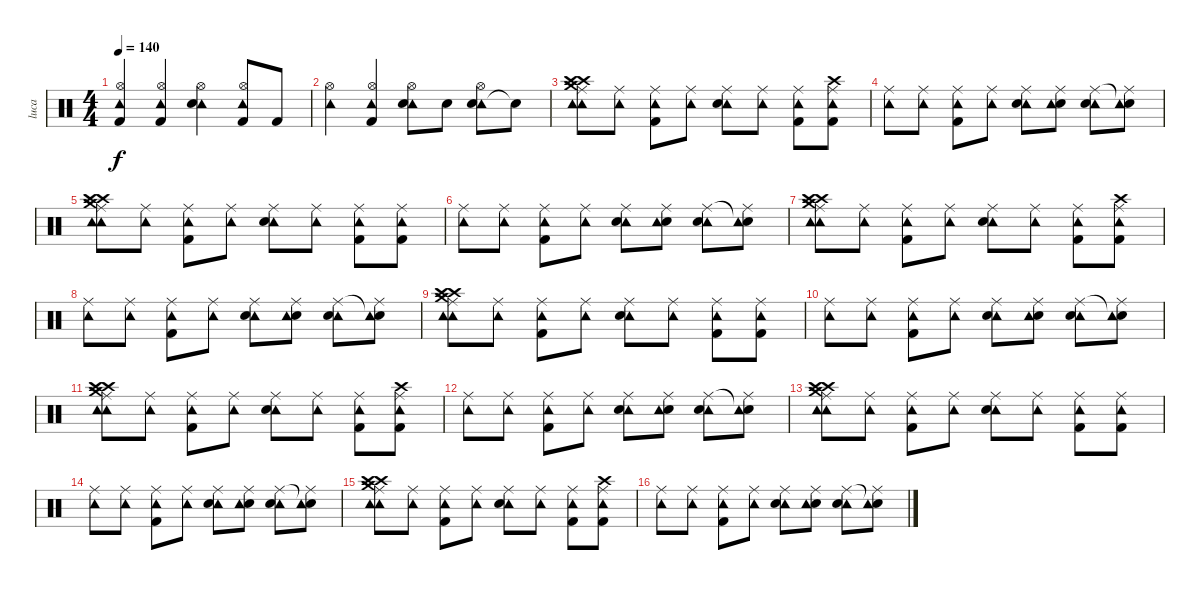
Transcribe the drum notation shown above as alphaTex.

\track ("luca" "luca") {instrument percussion}
\staff {score}
\articulation defaults
\ts (4 4)
\tempo 140
\clef neutral
\ks c
("Kick (hit) 2" "Hi-Hat (open)" "Tambourine (hit)").4{dy f} ("Tambourine (hit)" "Hi-Hat (open)" "Kick (hit) 2").4 ("Tambourine (hit)" "Hi-Hat (open)" "Snare (hit) 2").4 ("Tambourine (hit)" "Hi-Hat (open)" "Kick (hit) 2").8 "Kick (hit) 2".8 |
("Tambourine (hit)" "Hi-Hat (open)").4 ("Tambourine (hit)" "Hi-Hat (open)" "Kick (hit) 2").4 ("Tambourine (hit)" "Hi-Hat (open)" "Snare (hit) 2").8 "Snare (hit) 2".8 ("Tambourine (hit)" "Hi-Hat (open)" "Snare (hit) 2").8 "Snare (hit)"{t}.8 |
("Crash high (hit)" "Ride (middle)" "Tambourine (hit)" "Crash high (hit)" "Crash medium (hit)" "Tambourine (hit)").8 ("Ride (middle)" "Tambourine (hit)").8 ("Tambourine (hit)" "Ride (middle)" "Kick (hit) 2").8 ("Ride (middle)" "Tambourine (hit)").8 ("Tambourine (hit)" "Ride (middle)" "Snare (hit) 2").8 ("Ride (middle)" "Tambourine (hit)").8 ("Tambourine (hit)" "Ride (middle)" "Kick (hit) 2").8 ("Ride (middle)" "Kick (hit) 2" "Crash high (hit)" "Tambourine (hit)").8 |
("Tambourine (hit)" "Ride (middle)").8 ("Ride (middle)" "Tambourine (hit)").8 ("Tambourine (hit)" "Ride (middle)" "Kick (hit) 2").8 ("Ride (middle)" "Tambourine (hit)").8 ("Tambourine (hit)" "Ride (middle)" "Snare (hit) 2").8 ("Ride (middle)" "Snare (hit) 2" "Tambourine (hit)").8 ("Tambourine (hit)" "Ride (middle)" "Snare (hit) 2").8 ("Ride (middle)" "Snare (hit)"{t} "Tambourine (hit)").8 |
("Crash high (hit)" "Ride (middle)" "Tambourine (hit)" "Crash high (hit)" "Crash medium (hit)" "Tambourine (hit)").8 ("Ride (middle)" "Tambourine (hit)").8 ("Tambourine (hit)" "Ride (middle)" "Kick (hit) 2").8 ("Ride (middle)" "Tambourine (hit)").8 ("Tambourine (hit)" "Ride (middle)" "Snare (hit) 2").8 ("Ride (middle)" "Tambourine (hit)").8 ("Tambourine (hit)" "Ride (middle)" "Kick (hit) 2").8 ("Ride (middle)" "Kick (hit) 2" "Tambourine (hit)").8 |
("Tambourine (hit)" "Ride (middle)").8 ("Ride (middle)" "Tambourine (hit)").8 ("Tambourine (hit)" "Ride (middle)" "Kick (hit) 2").8 ("Ride (middle)" "Tambourine (hit)").8 ("Tambourine (hit)" "Ride (middle)" "Snare (hit) 2").8 ("Ride (middle)" "Snare (hit) 2" "Tambourine (hit)").8 ("Tambourine (hit)" "Ride (middle)" "Snare (hit) 2").8 ("Ride (middle)" "Snare (hit)"{t} "Tambourine (hit)").8 |
("Crash high (hit)" "Ride (middle)" "Tambourine (hit)" "Crash high (hit)" "Crash medium (hit)" "Tambourine (hit)").8 ("Ride (middle)" "Tambourine (hit)").8 ("Tambourine (hit)" "Ride (middle)" "Kick (hit) 2").8 ("Ride (middle)" "Tambourine (hit)").8 ("Tambourine (hit)" "Ride (middle)" "Snare (hit) 2").8 ("Ride (middle)" "Tambourine (hit)").8 ("Tambourine (hit)" "Ride (middle)" "Kick (hit) 2").8 ("Ride (middle)" "Kick (hit) 2" "Crash high (hit)" "Tambourine (hit)").8 |
("Tambourine (hit)" "Ride (middle)").8 ("Ride (middle)" "Tambourine (hit)").8 ("Tambourine (hit)" "Ride (middle)" "Kick (hit) 2").8 ("Ride (middle)" "Tambourine (hit)").8 ("Tambourine (hit)" "Ride (middle)" "Snare (hit) 2").8 ("Ride (middle)" "Snare (hit) 2" "Tambourine (hit)").8 ("Tambourine (hit)" "Ride (middle)" "Snare (hit) 2").8 ("Ride (middle)" "Snare (hit)"{t} "Tambourine (hit)").8 |
("Crash high (hit)" "Ride (middle)" "Tambourine (hit)" "Crash high (hit)" "Crash medium (hit)" "Tambourine (hit)").8 ("Ride (middle)" "Tambourine (hit)").8 ("Tambourine (hit)" "Ride (middle)" "Kick (hit) 2").8 ("Ride (middle)" "Tambourine (hit)").8 ("Tambourine (hit)" "Ride (middle)" "Snare (hit) 2").8 ("Ride (middle)" "Tambourine (hit)").8 ("Tambourine (hit)" "Ride (middle)" "Kick (hit) 2").8 ("Ride (middle)" "Kick (hit) 2" "Tambourine (hit)").8 |
("Tambourine (hit)" "Ride (middle)").8 ("Ride (middle)" "Tambourine (hit)").8 ("Tambourine (hit)" "Ride (middle)" "Kick (hit) 2").8 ("Ride (middle)" "Tambourine (hit)").8 ("Tambourine (hit)" "Ride (middle)" "Snare (hit) 2").8 ("Ride (middle)" "Snare (hit) 2" "Tambourine (hit)").8 ("Tambourine (hit)" "Ride (middle)" "Snare (hit) 2").8 ("Ride (middle)" "Snare (hit)"{t} "Tambourine (hit)").8 |
("Crash high (hit)" "Ride (middle)" "Tambourine (hit)" "Crash high (hit)" "Crash medium (hit)" "Tambourine (hit)").8 ("Ride (middle)" "Tambourine (hit)").8 ("Tambourine (hit)" "Ride (middle)" "Kick (hit) 2").8 ("Ride (middle)" "Tambourine (hit)").8 ("Tambourine (hit)" "Ride (middle)" "Snare (hit) 2").8 ("Ride (middle)" "Tambourine (hit)").8 ("Tambourine (hit)" "Ride (middle)" "Kick (hit) 2").8 ("Ride (middle)" "Kick (hit) 2" "Crash high (hit)" "Tambourine (hit)").8 |
("Tambourine (hit)" "Ride (middle)").8 ("Ride (middle)" "Tambourine (hit)").8 ("Tambourine (hit)" "Ride (middle)" "Kick (hit) 2").8 ("Ride (middle)" "Tambourine (hit)").8 ("Tambourine (hit)" "Ride (middle)" "Snare (hit) 2").8 ("Ride (middle)" "Snare (hit) 2" "Tambourine (hit)").8 ("Tambourine (hit)" "Ride (middle)" "Snare (hit) 2").8 ("Ride (middle)" "Snare (hit)"{t} "Tambourine (hit)").8 |
("Crash high (hit)" "Ride (middle)" "Tambourine (hit)" "Crash high (hit)" "Crash medium (hit)" "Tambourine (hit)").8 ("Ride (middle)" "Tambourine (hit)").8 ("Tambourine (hit)" "Ride (middle)" "Kick (hit) 2").8 ("Ride (middle)" "Tambourine (hit)").8 ("Tambourine (hit)" "Ride (middle)" "Snare (hit) 2").8 ("Ride (middle)" "Tambourine (hit)").8 ("Tambourine (hit)" "Ride (middle)" "Kick (hit) 2").8 ("Ride (middle)" "Kick (hit) 2" "Tambourine (hit)").8 |
("Tambourine (hit)" "Ride (middle)").8 ("Ride (middle)" "Tambourine (hit)").8 ("Tambourine (hit)" "Ride (middle)" "Kick (hit) 2").8 ("Ride (middle)" "Tambourine (hit)").8 ("Tambourine (hit)" "Ride (middle)" "Snare (hit) 2").8 ("Ride (middle)" "Snare (hit) 2" "Tambourine (hit)").8 ("Tambourine (hit)" "Ride (middle)" "Snare (hit) 2").8 ("Ride (middle)" "Snare (hit)"{t} "Tambourine (hit)").8 |
("Crash high (hit)" "Ride (middle)" "Tambourine (hit)" "Crash high (hit)" "Crash medium (hit)" "Tambourine (hit)").8 ("Ride (middle)" "Tambourine (hit)").8 ("Tambourine (hit)" "Ride (middle)" "Kick (hit) 2").8 ("Ride (middle)" "Tambourine (hit)").8 ("Tambourine (hit)" "Ride (middle)" "Snare (hit) 2").8 ("Ride (middle)" "Tambourine (hit)").8 ("Tambourine (hit)" "Ride (middle)" "Kick (hit) 2").8 ("Ride (middle)" "Kick (hit) 2" "Crash high (hit)" "Tambourine (hit)").8 |
("Tambourine (hit)" "Ride (middle)").8 ("Ride (middle)" "Tambourine (hit)").8 ("Tambourine (hit)" "Ride (middle)" "Kick (hit) 2").8 ("Ride (middle)" "Tambourine (hit)").8 ("Tambourine (hit)" "Ride (middle)" "Snare (hit) 2").8 ("Ride (middle)" "Snare (hit) 2" "Tambourine (hit)").8 ("Tambourine (hit)" "Ride (middle)" "Snare (hit) 2").8 ("Ride (middle)" "Snare (hit)"{t} "Tambourine (hit)").8
